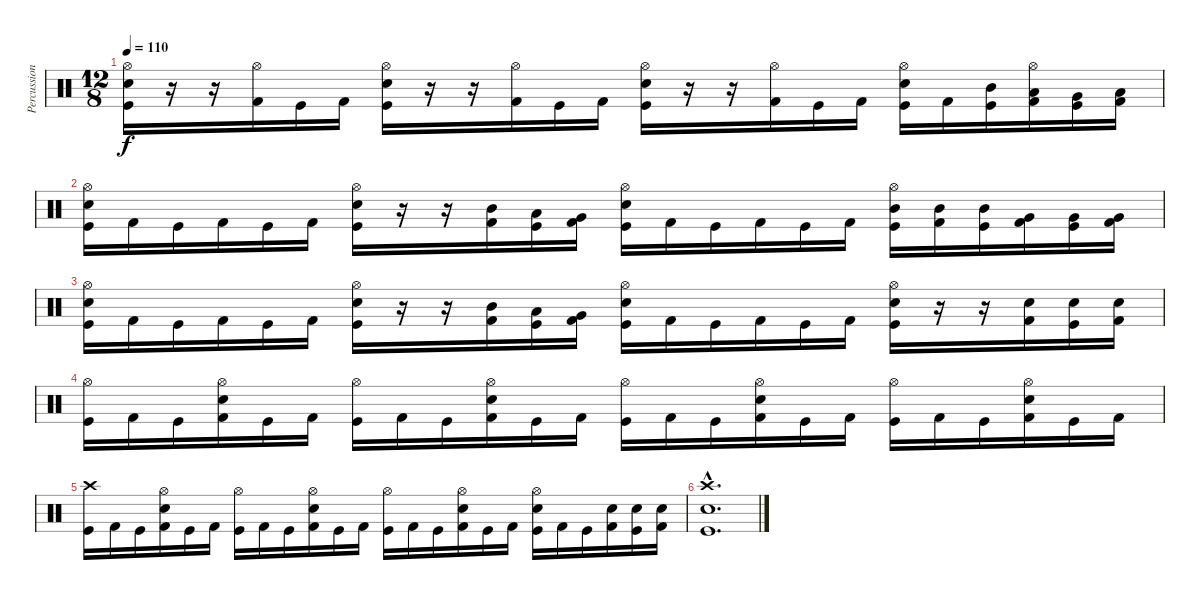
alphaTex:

\track ("Percussion" "Percussion") {instrument percussion}
\staff {score}
\articulation defaults
\ts (12 8)
\tempo 110
\clef neutral
\ks c
("Hi-Hat (open)" "Snare (hit) 2" "Kick (hit)").16{dy f} r.16 r.16 ("Hi-Hat (open)" "Kick (hit) 2").16 "Kick (hit)".16 "Kick (hit) 2".16 ("Hi-Hat (open)" "Snare (hit) 2" "Kick (hit)").16 r.16 r.16 ("Hi-Hat (open)" "Kick (hit) 2").16 "Kick (hit)".16 "Kick (hit) 2".16 ("Hi-Hat (open)" "Snare (hit) 2" "Kick (hit)").16 r.16 r.16 ("Hi-Hat (open)" "Kick (hit) 2").16 "Kick (hit)".16 "Kick (hit) 2".16 ("Hi-Hat (open)" "Snare (hit) 2" "Kick (hit)").16 "Kick (hit) 2".16 ("Mid Tom (hit)" "Kick (hit)").16 ("Hi-Hat (open)" "Low Tom (hit)" "Kick (hit) 2").16 ("Very Low Tom (hit)" "Kick (hit)").16 ("Low Floor Tom (hit)" "Kick (hit) 2").16 |
("Hi-Hat (open)" "Snare (hit) 2" "Kick (hit)").16 "Kick (hit) 2".16 "Kick (hit)".16 "Kick (hit) 2".16 "Kick (hit)".16 "Kick (hit) 2".16 ("Hi-Hat (open)" "Snare (hit) 2" "Kick (hit)").16 r.16 r.16 ("Mid Tom (hit)" "Kick (hit) 2").16 ("Low Tom (hit)" "Kick (hit)").16 ("Very Low Tom (hit)" "Kick (hit) 2").16 ("Hi-Hat (open)" "Snare (hit) 2" "Kick (hit)").16 "Kick (hit) 2".16 "Kick (hit)".16 "Kick (hit) 2".16 "Kick (hit)".16 "Kick (hit) 2".16 ("Hi-Hat (open)" "Mid Tom (hit)" "Kick (hit)").16 ("Mid Tom (hit)" "Kick (hit) 2").16 ("Mid Tom (hit)" "Kick (hit)").16 ("Very Low Tom (hit)" "Kick (hit) 2").16 ("Very Low Tom (hit)" "Kick (hit)").16 ("Very Low Tom (hit)" "Kick (hit) 2").16 |
("Hi-Hat (open)" "Snare (hit) 2" "Kick (hit)").16 "Kick (hit) 2".16 "Kick (hit)".16 "Kick (hit) 2".16 "Kick (hit)".16 "Kick (hit) 2".16 ("Hi-Hat (open)" "Snare (hit) 2" "Kick (hit)").16 r.16 r.16 ("Mid Tom (hit)" "Kick (hit) 2").16 ("Low Tom (hit)" "Kick (hit)").16 ("Very Low Tom (hit)" "Kick (hit) 2").16 ("Hi-Hat (open)" "Snare (hit) 2" "Kick (hit)").16 "Kick (hit) 2".16 "Kick (hit)".16 "Kick (hit) 2".16 "Kick (hit)".16 "Kick (hit) 2".16 ("Hi-Hat (open)" "Snare (hit) 2" "Kick (hit)").16 r.16 r.16 ("Snare (hit) 2" "Kick (hit) 2").16 ("Snare (hit) 2" "Kick (hit)").16 ("Snare (hit) 2" "Kick (hit) 2").16 |
("Hi-Hat (open)" "Kick (hit)").16 "Kick (hit) 2".16 "Kick (hit)".16 ("Hi-Hat (open)" "Snare (hit) 2" "Kick (hit) 2").16 "Kick (hit)".16 "Kick (hit) 2".16 ("Hi-Hat (open)" "Kick (hit)").16 "Kick (hit) 2".16 "Kick (hit)".16 ("Hi-Hat (open)" "Snare (hit) 2" "Kick (hit) 2").16 "Kick (hit)".16 "Kick (hit) 2".16 ("Hi-Hat (open)" "Kick (hit)").16 "Kick (hit) 2".16 "Kick (hit)".16 ("Hi-Hat (open)" "Snare (hit) 2" "Kick (hit) 2").16 "Kick (hit)".16 "Kick (hit) 2".16 ("Hi-Hat (open)" "Kick (hit)").16 "Kick (hit) 2".16 "Kick (hit)".16 ("Hi-Hat (open)" "Snare (hit) 2" "Kick (hit) 2").16 "Kick (hit)".16 "Kick (hit) 2".16 |
("Crash high (hit)" "Kick (hit)").16 "Kick (hit) 2".16 "Kick (hit)".16 ("Hi-Hat (open)" "Snare (hit) 2" "Kick (hit) 2").16 "Kick (hit)".16 "Kick (hit) 2".16 ("Hi-Hat (open)" "Kick (hit)").16 "Kick (hit) 2".16 "Kick (hit)".16 ("Hi-Hat (open)" "Snare (hit) 2" "Kick (hit) 2").16 "Kick (hit)".16 "Kick (hit) 2".16 ("Hi-Hat (open)" "Kick (hit)").16 "Kick (hit) 2".16 "Kick (hit)".16 ("Hi-Hat (open)" "Snare (hit) 2" "Kick (hit) 2").16 "Kick (hit)".16 "Kick (hit) 2".16 ("Hi-Hat (open)" "Snare (hit) 2" "Kick (hit)").16 "Kick (hit) 2".16 "Kick (hit)".16 ("Snare (hit) 2" "Kick (hit) 2").16 ("Snare (hit) 2" "Kick (hit)").16 ("Snare (hit) 2" "Kick (hit) 2").16 |
("Crash high (hit)"{hac} "Snare (hit) 2"{hac} "Kick (hit)"{hac}).1{d}
